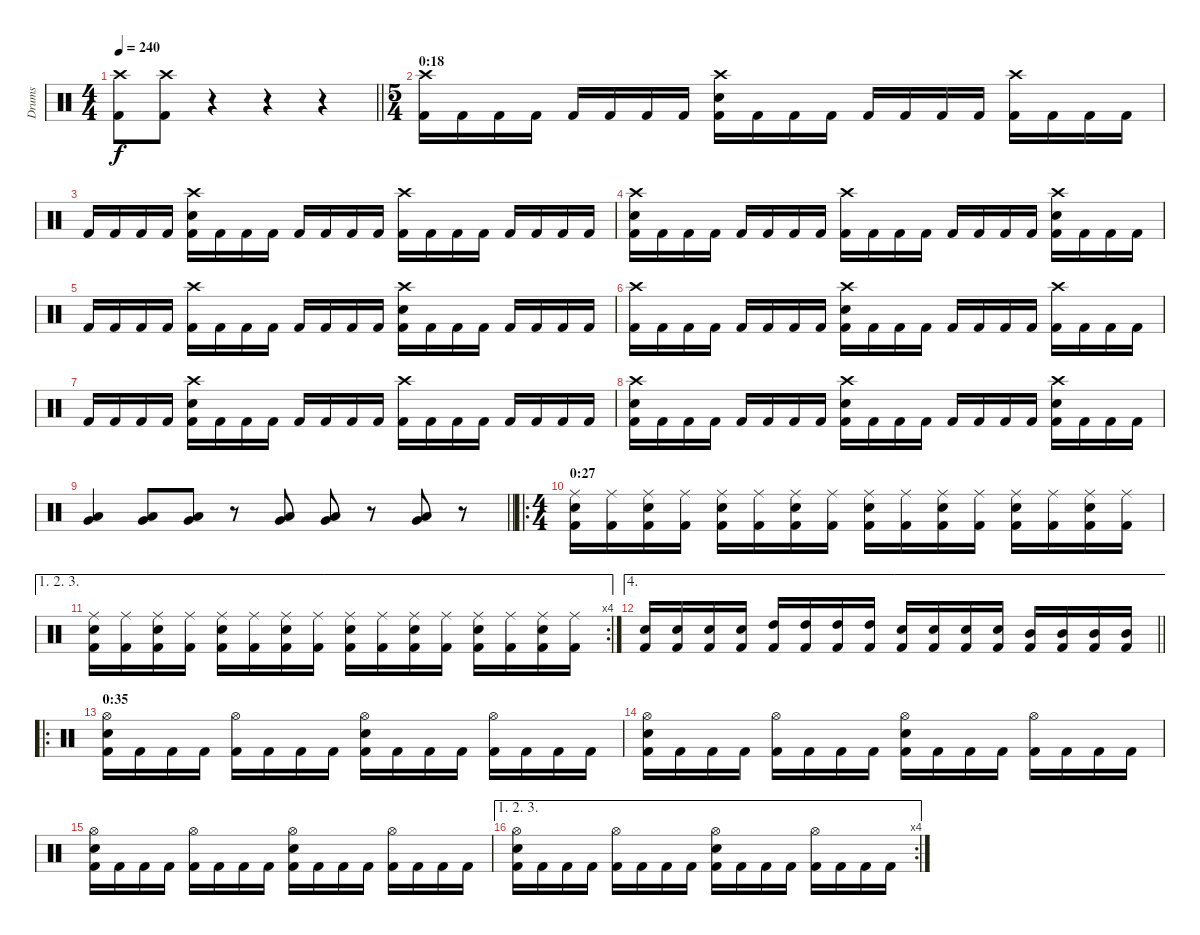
\track ("Drums" "Drums") {instrument percussion}
\staff {score}
\articulation defaults
\ts (4 4)
\tempo 240
\clef neutral
\barLineRight lightlight
\ks c
("Crash high (hit)" "Kick (hit) 2").8{dy f} ("Crash high (hit)" "Kick (hit) 2").8 r.4 r.4 r.4 |
\ts (5 4)
\section ("" "0:18")
("Crash high (hit)" "Kick (hit) 2").16 "Kick (hit) 2".16 "Kick (hit) 2".16 "Kick (hit) 2".16 "Kick (hit) 2".16 "Kick (hit) 2".16 "Kick (hit) 2".16 "Kick (hit) 2".16 ("Crash high (hit)" "Electric Snare (hit)" "Kick (hit) 2").16 "Kick (hit) 2".16 "Kick (hit) 2".16 "Kick (hit) 2".16 "Kick (hit) 2".16 "Kick (hit) 2".16 "Kick (hit) 2".16 "Kick (hit) 2".16 ("Crash high (hit)" "Kick (hit) 2").16 "Kick (hit) 2".16 "Kick (hit) 2".16 "Kick (hit) 2".16 |
"Kick (hit) 2".16 "Kick (hit) 2".16 "Kick (hit) 2".16 "Kick (hit) 2".16 ("Crash high (hit)" "Electric Snare (hit)" "Kick (hit) 2").16 "Kick (hit) 2".16 "Kick (hit) 2".16 "Kick (hit) 2".16 "Kick (hit) 2".16 "Kick (hit) 2".16 "Kick (hit) 2".16 "Kick (hit) 2".16 ("Crash high (hit)" "Kick (hit) 2").16 "Kick (hit) 2".16 "Kick (hit) 2".16 "Kick (hit) 2".16 "Kick (hit) 2".16 "Kick (hit) 2".16 "Kick (hit) 2".16 "Kick (hit) 2".16 |
("Crash high (hit)" "Electric Snare (hit)" "Kick (hit) 2").16 "Kick (hit) 2".16 "Kick (hit) 2".16 "Kick (hit) 2".16 "Kick (hit) 2".16 "Kick (hit) 2".16 "Kick (hit) 2".16 "Kick (hit) 2".16 ("Crash high (hit)" "Kick (hit) 2").16 "Kick (hit) 2".16 "Kick (hit) 2".16 "Kick (hit) 2".16 "Kick (hit) 2".16 "Kick (hit) 2".16 "Kick (hit) 2".16 "Kick (hit) 2".16 ("Crash high (hit)" "Electric Snare (hit)" "Kick (hit) 2").16 "Kick (hit) 2".16 "Kick (hit) 2".16 "Kick (hit) 2".16 |
"Kick (hit) 2".16 "Kick (hit) 2".16 "Kick (hit) 2".16 "Kick (hit) 2".16 ("Crash high (hit)" "Kick (hit) 2").16 "Kick (hit) 2".16 "Kick (hit) 2".16 "Kick (hit) 2".16 "Kick (hit) 2".16 "Kick (hit) 2".16 "Kick (hit) 2".16 "Kick (hit) 2".16 ("Crash high (hit)" "Electric Snare (hit)" "Kick (hit) 2").16 "Kick (hit) 2".16 "Kick (hit) 2".16 "Kick (hit) 2".16 "Kick (hit) 2".16 "Kick (hit) 2".16 "Kick (hit) 2".16 "Kick (hit) 2".16 |
("Crash high (hit)" "Kick (hit) 2").16 "Kick (hit) 2".16 "Kick (hit) 2".16 "Kick (hit) 2".16 "Kick (hit) 2".16 "Kick (hit) 2".16 "Kick (hit) 2".16 "Kick (hit) 2".16 ("Crash high (hit)" "Electric Snare (hit)" "Kick (hit) 2").16 "Kick (hit) 2".16 "Kick (hit) 2".16 "Kick (hit) 2".16 "Kick (hit) 2".16 "Kick (hit) 2".16 "Kick (hit) 2".16 "Kick (hit) 2".16 ("Crash high (hit)" "Kick (hit) 2").16 "Kick (hit) 2".16 "Kick (hit) 2".16 "Kick (hit) 2".16 |
"Kick (hit) 2".16 "Kick (hit) 2".16 "Kick (hit) 2".16 "Kick (hit) 2".16 ("Crash high (hit)" "Electric Snare (hit)" "Kick (hit) 2").16 "Kick (hit) 2".16 "Kick (hit) 2".16 "Kick (hit) 2".16 "Kick (hit) 2".16 "Kick (hit) 2".16 "Kick (hit) 2".16 "Kick (hit) 2".16 ("Crash high (hit)" "Kick (hit) 2").16 "Kick (hit) 2".16 "Kick (hit) 2".16 "Kick (hit) 2".16 "Kick (hit) 2".16 "Kick (hit) 2".16 "Kick (hit) 2".16 "Kick (hit) 2".16 |
("Crash high (hit)" "Electric Snare (hit)" "Kick (hit) 2").16 "Kick (hit) 2".16 "Kick (hit) 2".16 "Kick (hit) 2".16 "Kick (hit) 2".16 "Kick (hit) 2".16 "Kick (hit) 2".16 "Kick (hit) 2".16 ("Crash high (hit)" "Electric Snare (hit)" "Kick (hit) 2").16 "Kick (hit) 2".16 "Kick (hit) 2".16 "Kick (hit) 2".16 "Kick (hit) 2".16 "Kick (hit) 2".16 "Kick (hit) 2".16 "Kick (hit) 2".16 ("Crash high (hit)" "Electric Snare (hit)" "Kick (hit) 2").16 "Kick (hit) 2".16 "Kick (hit) 2".16 "Kick (hit) 2".16 |
\barLineRight lightlight
("Low Tom (hit)" "Very Low Tom (hit)").4 ("Low Tom (hit)" "Very Low Tom (hit)").8 ("Low Tom (hit)" "Very Low Tom (hit)").8 r.8 ("Low Tom (hit)" "Very Low Tom (hit)").8 ("Low Tom (hit)" "Very Low Tom (hit)").8 r.8 ("Low Tom (hit)" "Very Low Tom (hit)").8 r.8 |
\ro
\ts (4 4)
\section ("" "0:27")
("Ride (middle)" "Electric Snare (hit)" "Kick (hit) 2").16 ("Ride (middle)" "Kick (hit) 2").16 ("Ride (middle)" "Electric Snare (hit)" "Kick (hit) 2").16 ("Ride (middle)" "Kick (hit) 2").16 ("Ride (middle)" "Electric Snare (hit)" "Kick (hit) 2").16 ("Ride (middle)" "Kick (hit) 2").16 ("Ride (middle)" "Electric Snare (hit)" "Kick (hit) 2").16 ("Ride (middle)" "Kick (hit) 2").16 ("Ride (middle)" "Electric Snare (hit)" "Kick (hit) 2").16 ("Ride (middle)" "Kick (hit) 2").16 ("Ride (middle)" "Electric Snare (hit)" "Kick (hit) 2").16 ("Ride (middle)" "Kick (hit) 2").16 ("Ride (middle)" "Electric Snare (hit)" "Kick (hit) 2").16 ("Ride (middle)" "Kick (hit) 2").16 ("Ride (middle)" "Electric Snare (hit)" "Kick (hit) 2").16 ("Ride (middle)" "Kick (hit) 2").16 |
\ae (1 2 3)
\rc 4
("Ride (middle)" "Electric Snare (hit)" "Kick (hit) 2").16 ("Ride (middle)" "Kick (hit) 2").16 ("Ride (middle)" "Electric Snare (hit)" "Kick (hit) 2").16 ("Ride (middle)" "Kick (hit) 2").16 ("Ride (middle)" "Electric Snare (hit)" "Kick (hit) 2").16 ("Ride (middle)" "Kick (hit) 2").16 ("Ride (middle)" "Electric Snare (hit)" "Kick (hit) 2").16 ("Ride (middle)" "Kick (hit) 2").16 ("Ride (middle)" "Electric Snare (hit)" "Kick (hit) 2").16 ("Ride (middle)" "Kick (hit) 2").16 ("Ride (middle)" "Electric Snare (hit)" "Kick (hit) 2").16 ("Ride (middle)" "Kick (hit) 2").16 ("Ride (middle)" "Electric Snare (hit)" "Kick (hit) 2").16 ("Ride (middle)" "Kick (hit) 2").16 ("Ride (middle)" "Electric Snare (hit)" "Kick (hit) 2").16 ("Ride (middle)" "Kick (hit) 2").16 |
\ae 4
\barLineRight lightlight
("Electric Snare (hit)" "Kick (hit) 2").16 ("Electric Snare (hit)" "Kick (hit) 2").16 ("Electric Snare (hit)" "Kick (hit) 2").16 ("Electric Snare (hit)" "Kick (hit) 2").16 ("High Tom (hit)" "Kick (hit) 2").16 ("High Tom (hit)" "Kick (hit) 2").16 ("High Tom (hit)" "Kick (hit) 2").16 ("High Tom (hit)" "Kick (hit) 2").16 ("Electric Snare (hit)" "Kick (hit) 2").16 ("Electric Snare (hit)" "Kick (hit) 2").16 ("Electric Snare (hit)" "Kick (hit) 2").16 ("Electric Snare (hit)" "Kick (hit) 2").16 ("Mid Tom (hit)" "Kick (hit) 2").16 ("Mid Tom (hit)" "Kick (hit) 2").16 ("Mid Tom (hit)" "Kick (hit) 2").16 ("Mid Tom (hit)" "Kick (hit) 2").16 |
\ro
\section ("" "0:35")
("Hi-Hat (open)" "Electric Snare (hit)" "Kick (hit) 2").16 "Kick (hit) 2".16 "Kick (hit) 2".16 "Kick (hit) 2".16 ("Hi-Hat (open)" "Kick (hit) 2").16 "Kick (hit) 2".16 "Kick (hit) 2".16 "Kick (hit) 2".16 ("Hi-Hat (open)" "Electric Snare (hit)" "Kick (hit) 2").16 "Kick (hit) 2".16 "Kick (hit) 2".16 "Kick (hit) 2".16 ("Hi-Hat (open)" "Kick (hit) 2").16 "Kick (hit) 2".16 "Kick (hit) 2".16 "Kick (hit) 2".16 |
("Hi-Hat (open)" "Electric Snare (hit)" "Kick (hit) 2").16 "Kick (hit) 2".16 "Kick (hit) 2".16 "Kick (hit) 2".16 ("Hi-Hat (open)" "Kick (hit) 2").16 "Kick (hit) 2".16 "Kick (hit) 2".16 "Kick (hit) 2".16 ("Hi-Hat (open)" "Electric Snare (hit)" "Kick (hit) 2").16 "Kick (hit) 2".16 "Kick (hit) 2".16 "Kick (hit) 2".16 ("Hi-Hat (open)" "Kick (hit) 2").16 "Kick (hit) 2".16 "Kick (hit) 2".16 "Kick (hit) 2".16 |
("Hi-Hat (open)" "Electric Snare (hit)" "Kick (hit) 2").16 "Kick (hit) 2".16 "Kick (hit) 2".16 "Kick (hit) 2".16 ("Hi-Hat (open)" "Kick (hit) 2").16 "Kick (hit) 2".16 "Kick (hit) 2".16 "Kick (hit) 2".16 ("Hi-Hat (open)" "Electric Snare (hit)" "Kick (hit) 2").16 "Kick (hit) 2".16 "Kick (hit) 2".16 "Kick (hit) 2".16 ("Hi-Hat (open)" "Kick (hit) 2").16 "Kick (hit) 2".16 "Kick (hit) 2".16 "Kick (hit) 2".16 |
\ae (1 2 3)
\rc 4
("Hi-Hat (open)" "Electric Snare (hit)" "Kick (hit) 2").16 "Kick (hit) 2".16 "Kick (hit) 2".16 "Kick (hit) 2".16 ("Hi-Hat (open)" "Kick (hit) 2").16 "Kick (hit) 2".16 "Kick (hit) 2".16 "Kick (hit) 2".16 ("Hi-Hat (open)" "Electric Snare (hit)" "Kick (hit) 2").16 "Kick (hit) 2".16 "Kick (hit) 2".16 "Kick (hit) 2".16 ("Hi-Hat (open)" "Kick (hit) 2").16 "Kick (hit) 2".16 "Kick (hit) 2".16 "Kick (hit) 2".16
